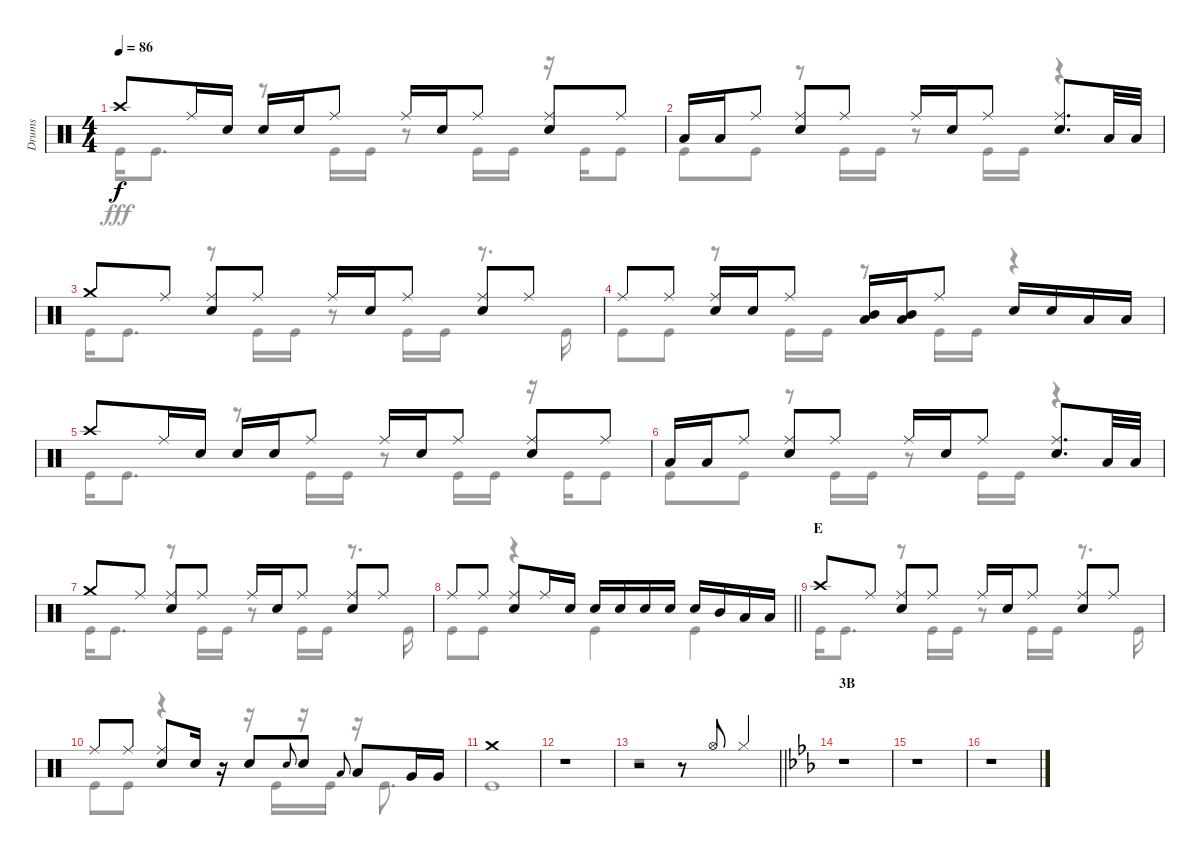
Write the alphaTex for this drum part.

\track ("Drums" "Drums") {instrument percussion}
\staff {score}
\articulation defaults
\voice
\ts (4 4)
\tempo 86
\clef neutral
\ks c "Crash high (hit)".8{dy f} "Ride (middle)".16 "Snare (hit) 2".16 "Snare (hit) 2".16 "Snare (hit) 2".16 "Ride (middle)".8 "Ride (middle)".16 "Snare (hit) 2".16 "Ride (middle)".8
("Ride (middle)" "Snare (hit) 2").8 "Ride (middle)".8 |
"Low Tom (hit)".16 "Low Tom (hit)".16 "Ride (middle)".8 ("Ride (middle)" "Snare (hit) 2").8 "Ride (middle)".8 "Ride (middle)".16 "Snare (hit) 2".16 "Ride (middle)".8 ("Ride (middle)" "Snare (hit) 2").8{d} "Low Tom (hit)".32 "Low Tom (hit)".32 |
"Crash medium (hit)".8 "Ride (middle)".8 ("Ride (middle)" "Snare (hit) 2").8 "Ride (middle)".8 "Ride (middle)".16 "Snare (hit) 2".16 "Ride (middle)".8 ("Ride (middle)" "Snare (hit) 2").8 "Ride (middle)".8 |
"Ride (middle)".8 "Ride (middle)".8 ("Ride (middle)" "Snare (hit) 2").16 "Snare (hit) 2".16 "Ride (middle)".8 ("Mid Tom (hit)" "Low Tom (hit)").16 ("Mid Tom (hit)" "Low Tom (hit)").16 "Ride (middle)".8 "Snare (hit) 2".16 "Snare (hit) 2".16 "Low Tom (hit)".16 "Low Tom (hit)".16 |
"Crash high (hit)".8 "Ride (middle)".16 "Snare (hit) 2".16 "Snare (hit) 2".16 "Snare (hit) 2".16 "Ride (middle)".8 "Ride (middle)".16 "Snare (hit) 2".16 "Ride (middle)".8 ("Ride (middle)" "Snare (hit) 2").8 "Ride (middle)".8 |
"Low Tom (hit)".16 "Low Tom (hit)".16 "Ride (middle)".8 ("Ride (middle)" "Snare (hit) 2").8 "Ride (middle)".8 "Ride (middle)".16 "Snare (hit) 2".16 "Ride (middle)".8 ("Ride (middle)" "Snare (hit) 2").8{d} "Low Tom (hit)".32 "Low Tom (hit)".32 |
"Crash medium (hit)".8 "Ride (middle)".8 ("Ride (middle)" "Snare (hit) 2").8 "Ride (middle)".8 "Ride (middle)".16 "Snare (hit) 2".16 "Ride (middle)".8 ("Ride (middle)" "Snare (hit) 2").8 "Ride (middle)".8 |
\barLineRight lightlight "Ride (middle)".8 "Ride (middle)".8
("Ride (middle)" "Snare (hit) 2").8 "Ride (middle)".16 "Snare (hit) 2".16 "Snare (hit) 2".16 "Snare (hit) 2".16 "Snare (hit) 2".16 "Snare (hit) 2".16 "Snare (hit) 2".16 "Mid Tom (hit)".16 "Low Tom (hit)".16 "Low Tom (hit)".16 |
\section ("" "E")
"Crash high (hit)".8 "Ride (middle)".8 ("Ride (middle)" "Snare (hit) 2").8 "Ride (middle)".8 "Ride (middle)".16 "Snare (hit) 2".16 "Ride (middle)".8 ("Ride (middle)" "Snare (hit) 2").8 "Ride (middle)".8 |
"Ride (middle)".8 "Ride (middle)".8 ("Ride (middle)" "Snare (hit) 2").8 "Snare (hit) 2".16 r.16 "Snare (hit) 2".8 "Snare (hit) 2".8{gr onbeat} "Snare (hit) 2".8 "Low Tom (hit)".8{gr onbeat} "Low Tom (hit)".8 "Very Low Tom (hit)".16 "Very Low Tom (hit)".16 |
"Crash medium (hit)".1 |
r.1 |
\barLineRight lightlight
r.2 r.8 "Hi-Hat (open)".8 "Hi-Hat (closed)".4 |
\section ("" "3B")
\ks eb
r.1 |
r.1 |
r.1
\voice
\clef neutral
\ottava regular
\simile none
\ks c "Kick (hit)".16{dy fff} "Kick (hit)".8{d}
r.8 "Kick (hit)".16 "Kick (hit)".16 r.8 "Kick (hit)".16 "Kick (hit)".16 r.16 "Kick (hit)".16 "Kick (hit)".8 |
"Kick (hit)".8 "Kick (hit)".8 r.8 "Kick (hit)".16 "Kick (hit)".16 r.8 "Kick (hit)".16 "Kick (hit)".16 r.4 |
"Kick (hit)".16 "Kick (hit)".8{d} r.8 "Kick (hit)".16 "Kick (hit)".16 r.8 "Kick (hit)".16 "Kick (hit)".16 r.8{d} "Kick (hit)".16 |
"Kick (hit)".8 "Kick (hit)".8 r.8 "Kick (hit)".16 "Kick (hit)".16 r.8 "Kick (hit)".16 "Kick (hit)".16 r.4 |
"Kick (hit)".16 "Kick (hit)".8{d} r.8 "Kick (hit)".16 "Kick (hit)".16 r.8 "Kick (hit)".16 "Kick (hit)".16 r.16 "Kick (hit)".16 "Kick (hit)".8 |
"Kick (hit)".8 "Kick (hit)".8 r.8 "Kick (hit)".16 "Kick (hit)".16 r.8 "Kick (hit)".16 "Kick (hit)".16 r.4 |
"Kick (hit)".16 "Kick (hit)".8{d} r.8 "Kick (hit)".16 "Kick (hit)".16 r.8 "Kick (hit)".16 "Kick (hit)".16 r.8{d} "Kick (hit)".16 |
\barLineRight lightlight "Kick (hit)".8 "Kick (hit)".8
r.4 "Kick (hit)".4 "Kick (hit)".4 |
"Kick (hit)".16 "Kick (hit)".8{d} r.8 "Kick (hit)".16 "Kick (hit)".16 r.8 "Kick (hit)".16 "Kick (hit)".16 r.8{d} "Kick (hit)".16 |
"Kick (hit)".8 "Kick (hit)".8 r.4 r.16 "Kick (hit)".16 r.16 "Kick (hit)".16 r.16 "Kick (hit)".8{d} |
"Kick (hit)".1 |
r.1 |
\barLineRight lightlight
r.1 |
\ks eb
r.1 |
r.1 |
r.1
